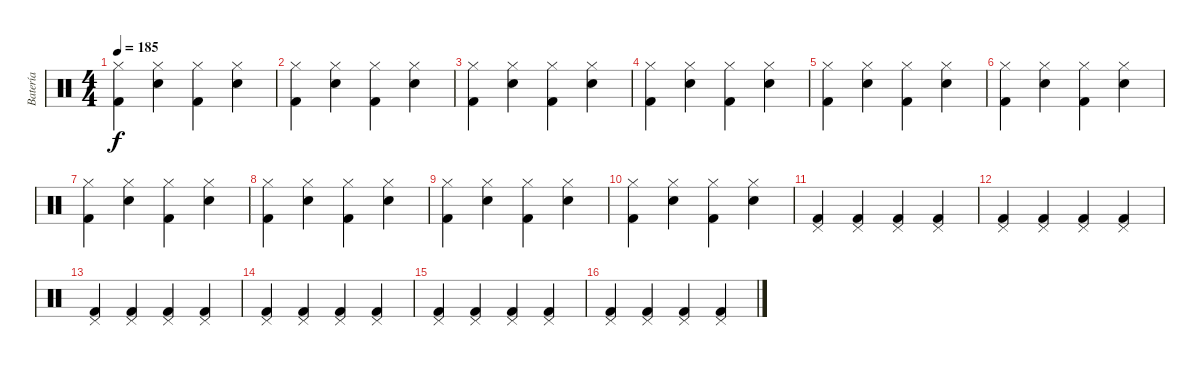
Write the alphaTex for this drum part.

\track ("Batería" "Batería") {instrument percussion}
\staff {score}
\articulation defaults
\ts (4 4)
\tempo 185
\clef neutral
\ks c
("Hi-Hat (closed)" "Kick (hit) 2").4{dy f} ("Hi-Hat (closed)" "Snare (hit) 2").4 ("Hi-Hat (closed)" "Kick (hit) 2").4 ("Hi-Hat (closed)" "Snare (hit) 2").4 |
("Hi-Hat (closed)" "Kick (hit) 2").4 ("Hi-Hat (closed)" "Snare (hit) 2").4 ("Hi-Hat (closed)" "Kick (hit) 2").4 ("Hi-Hat (closed)" "Snare (hit) 2").4 |
("Hi-Hat (closed)" "Kick (hit) 2").4 ("Hi-Hat (closed)" "Snare (hit) 2").4 ("Hi-Hat (closed)" "Kick (hit) 2").4 ("Hi-Hat (closed)" "Snare (hit) 2").4 |
("Hi-Hat (closed)" "Kick (hit) 2").4 ("Hi-Hat (closed)" "Snare (hit) 2").4 ("Hi-Hat (closed)" "Kick (hit) 2").4 ("Hi-Hat (closed)" "Snare (hit) 2").4 |
("Hi-Hat (closed)" "Kick (hit) 2").4 ("Hi-Hat (closed)" "Snare (hit) 2").4 ("Hi-Hat (closed)" "Kick (hit) 2").4 ("Hi-Hat (closed)" "Snare (hit) 2").4 |
("Hi-Hat (closed)" "Kick (hit) 2").4 ("Hi-Hat (closed)" "Snare (hit) 2").4 ("Hi-Hat (closed)" "Kick (hit) 2").4 ("Hi-Hat (closed)" "Snare (hit) 2").4 |
("Hi-Hat (closed)" "Kick (hit) 2").4 ("Hi-Hat (closed)" "Snare (hit) 2").4 ("Hi-Hat (closed)" "Kick (hit) 2").4 ("Hi-Hat (closed)" "Snare (hit) 2").4 |
("Hi-Hat (closed)" "Kick (hit) 2").4 ("Hi-Hat (closed)" "Snare (hit) 2").4 ("Hi-Hat (closed)" "Kick (hit) 2").4 ("Hi-Hat (closed)" "Snare (hit) 2").4 |
("Hi-Hat (closed)" "Kick (hit) 2").4 ("Hi-Hat (closed)" "Snare (hit) 2").4 ("Hi-Hat (closed)" "Kick (hit) 2").4 ("Hi-Hat (closed)" "Snare (hit) 2").4 |
("Hi-Hat (closed)" "Kick (hit) 2").4 ("Hi-Hat (closed)" "Snare (hit) 2").4 ("Hi-Hat (closed)" "Kick (hit) 2").4 ("Hi-Hat (closed)" "Snare (hit) 2").4 |
("Pedal Hi-Hat (hit)" "Kick (hit) 2").4 ("Pedal Hi-Hat (hit)" "Kick (hit) 2").4 ("Pedal Hi-Hat (hit)" "Kick (hit) 2").4 ("Pedal Hi-Hat (hit)" "Kick (hit) 2").4 |
("Pedal Hi-Hat (hit)" "Kick (hit) 2").4 ("Pedal Hi-Hat (hit)" "Kick (hit) 2").4 ("Pedal Hi-Hat (hit)" "Kick (hit) 2").4 ("Pedal Hi-Hat (hit)" "Kick (hit) 2").4 |
("Pedal Hi-Hat (hit)" "Kick (hit) 2").4 ("Pedal Hi-Hat (hit)" "Kick (hit) 2").4 ("Pedal Hi-Hat (hit)" "Kick (hit) 2").4 ("Pedal Hi-Hat (hit)" "Kick (hit) 2").4 |
("Pedal Hi-Hat (hit)" "Kick (hit) 2").4 ("Pedal Hi-Hat (hit)" "Kick (hit) 2").4 ("Pedal Hi-Hat (hit)" "Kick (hit) 2").4 ("Pedal Hi-Hat (hit)" "Kick (hit) 2").4 |
("Pedal Hi-Hat (hit)" "Kick (hit) 2").4 ("Pedal Hi-Hat (hit)" "Kick (hit) 2").4 ("Pedal Hi-Hat (hit)" "Kick (hit) 2").4 ("Pedal Hi-Hat (hit)" "Kick (hit) 2").4 |
("Pedal Hi-Hat (hit)" "Kick (hit) 2").4 ("Pedal Hi-Hat (hit)" "Kick (hit) 2").4 ("Pedal Hi-Hat (hit)" "Kick (hit) 2").4 ("Pedal Hi-Hat (hit)" "Kick (hit) 2").4
